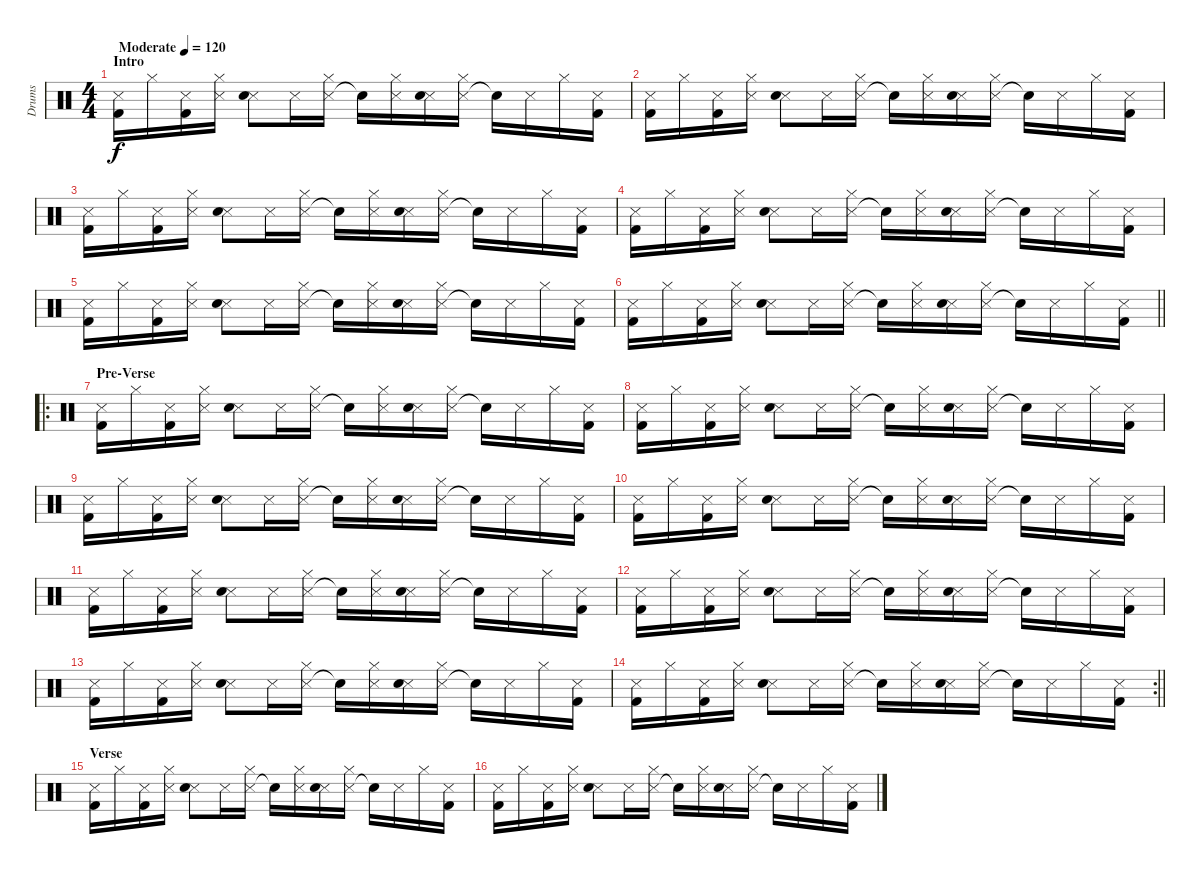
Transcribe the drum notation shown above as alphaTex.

\track ("Drums" "Drums") {instrument percussion}
\staff {score}
\articulation defaults
\ts (4 4)
\section ("" "Intro")
\tempo (120 "Moderate")
\clef neutral
\ks c
("Snare (side stick) 3" "Kick (hit) 2").16{dy f volume 11} "Hi-Hat (closed)".16 ("Snare (side stick) 3" "Kick (hit) 2").16 ("Snare (side stick) 3" "Hi-Hat (closed)").16 ("Snare (side stick) 3" "Snare (hit) 2").8 "Snare (side stick) 3".16 ("Snare (side stick) 3" "Hi-Hat (closed)").16 "Snare (hit)"{t}.16 ("Snare (side stick) 3" "Hi-Hat (closed)").16 ("Snare (side stick) 3" "Snare (hit) 2").16 ("Snare (side stick) 3" "Hi-Hat (closed)").16 "Snare (hit)"{t}.16 "Snare (side stick) 3".16 "Hi-Hat (closed)".16 ("Snare (side stick) 3" "Kick (hit) 2").16 |
("Snare (side stick) 3" "Kick (hit) 2").16 "Hi-Hat (closed)".16 ("Snare (side stick) 3" "Kick (hit) 2").16 ("Snare (side stick) 3" "Hi-Hat (closed)").16 ("Snare (side stick) 3" "Snare (hit) 2").8 "Snare (side stick) 3".16 ("Snare (side stick) 3" "Hi-Hat (closed)").16 "Snare (hit)"{t}.16 ("Snare (side stick) 3" "Hi-Hat (closed)").16 ("Snare (side stick) 3" "Snare (hit) 2").16 ("Snare (side stick) 3" "Hi-Hat (closed)").16 "Snare (hit)"{t}.16 "Snare (side stick) 3".16 "Hi-Hat (closed)".16 ("Snare (side stick) 3" "Kick (hit) 2").16 |
("Snare (side stick) 3" "Kick (hit) 2").16 "Hi-Hat (closed)".16 ("Snare (side stick) 3" "Kick (hit) 2").16 ("Snare (side stick) 3" "Hi-Hat (closed)").16 ("Snare (side stick) 3" "Snare (hit) 2").8 "Snare (side stick) 3".16 ("Snare (side stick) 3" "Hi-Hat (closed)").16 "Snare (hit)"{t}.16 ("Snare (side stick) 3" "Hi-Hat (closed)").16 ("Snare (side stick) 3" "Snare (hit) 2").16 ("Snare (side stick) 3" "Hi-Hat (closed)").16 "Snare (hit)"{t}.16 "Snare (side stick) 3".16 "Hi-Hat (closed)".16 ("Snare (side stick) 3" "Kick (hit) 2").16 |
("Snare (side stick) 3" "Kick (hit) 2").16 "Hi-Hat (closed)".16 ("Snare (side stick) 3" "Kick (hit) 2").16 ("Snare (side stick) 3" "Hi-Hat (closed)").16 ("Snare (side stick) 3" "Snare (hit) 2").8 "Snare (side stick) 3".16 ("Snare (side stick) 3" "Hi-Hat (closed)").16 "Snare (hit)"{t}.16 ("Snare (side stick) 3" "Hi-Hat (closed)").16 ("Snare (side stick) 3" "Snare (hit) 2").16 ("Snare (side stick) 3" "Hi-Hat (closed)").16 "Snare (hit)"{t}.16 "Snare (side stick) 3".16 "Hi-Hat (closed)".16 ("Snare (side stick) 3" "Kick (hit) 2").16 |
("Snare (side stick) 3" "Kick (hit) 2").16 "Hi-Hat (closed)".16 ("Snare (side stick) 3" "Kick (hit) 2").16 ("Snare (side stick) 3" "Hi-Hat (closed)").16 ("Snare (side stick) 3" "Snare (hit) 2").8 "Snare (side stick) 3".16 ("Snare (side stick) 3" "Hi-Hat (closed)").16 "Snare (hit)"{t}.16 ("Snare (side stick) 3" "Hi-Hat (closed)").16 ("Snare (side stick) 3" "Snare (hit) 2").16 ("Snare (side stick) 3" "Hi-Hat (closed)").16 "Snare (hit)"{t}.16 "Snare (side stick) 3".16 "Hi-Hat (closed)".16 ("Snare (side stick) 3" "Kick (hit) 2").16 |
\barLineRight lightlight
("Snare (side stick) 3" "Kick (hit) 2").16 "Hi-Hat (closed)".16 ("Snare (side stick) 3" "Kick (hit) 2").16 ("Snare (side stick) 3" "Hi-Hat (closed)").16 ("Snare (side stick) 3" "Snare (hit) 2").8 "Snare (side stick) 3".16 ("Snare (side stick) 3" "Hi-Hat (closed)").16 "Snare (hit)"{t}.16 ("Snare (side stick) 3" "Hi-Hat (closed)").16 ("Snare (side stick) 3" "Snare (hit) 2").16 ("Snare (side stick) 3" "Hi-Hat (closed)").16 "Snare (hit)"{t}.16 "Snare (side stick) 3".16 "Hi-Hat (closed)".16 ("Snare (side stick) 3" "Kick (hit) 2").16 |
\ro
\section ("" "Pre-Verse")
("Snare (side stick) 3" "Kick (hit) 2").16 "Hi-Hat (closed)".16 ("Snare (side stick) 3" "Kick (hit) 2").16 ("Snare (side stick) 3" "Hi-Hat (closed)").16 ("Snare (side stick) 3" "Snare (hit) 2").8 "Snare (side stick) 3".16 ("Snare (side stick) 3" "Hi-Hat (closed)").16 "Snare (hit)"{t}.16 ("Snare (side stick) 3" "Hi-Hat (closed)").16 ("Snare (side stick) 3" "Snare (hit) 2").16 ("Snare (side stick) 3" "Hi-Hat (closed)").16 "Snare (hit)"{t}.16 "Snare (side stick) 3".16 "Hi-Hat (closed)".16 ("Snare (side stick) 3" "Kick (hit) 2").16 |
("Snare (side stick) 3" "Kick (hit) 2").16 "Hi-Hat (closed)".16 ("Snare (side stick) 3" "Kick (hit) 2").16 ("Snare (side stick) 3" "Hi-Hat (closed)").16 ("Snare (side stick) 3" "Snare (hit) 2").8 "Snare (side stick) 3".16 ("Snare (side stick) 3" "Hi-Hat (closed)").16 "Snare (hit)"{t}.16 ("Snare (side stick) 3" "Hi-Hat (closed)").16 ("Snare (side stick) 3" "Snare (hit) 2").16 ("Snare (side stick) 3" "Hi-Hat (closed)").16 "Snare (hit)"{t}.16 "Snare (side stick) 3".16 "Hi-Hat (closed)".16 ("Snare (side stick) 3" "Kick (hit) 2").16 |
("Snare (side stick) 3" "Kick (hit) 2").16 "Hi-Hat (closed)".16 ("Snare (side stick) 3" "Kick (hit) 2").16 ("Snare (side stick) 3" "Hi-Hat (closed)").16 ("Snare (side stick) 3" "Snare (hit) 2").8 "Snare (side stick) 3".16 ("Snare (side stick) 3" "Hi-Hat (closed)").16 "Snare (hit)"{t}.16 ("Snare (side stick) 3" "Hi-Hat (closed)").16 ("Snare (side stick) 3" "Snare (hit) 2").16 ("Snare (side stick) 3" "Hi-Hat (closed)").16 "Snare (hit)"{t}.16 "Snare (side stick) 3".16 "Hi-Hat (closed)".16 ("Snare (side stick) 3" "Kick (hit) 2").16 |
("Snare (side stick) 3" "Kick (hit) 2").16 "Hi-Hat (closed)".16 ("Snare (side stick) 3" "Kick (hit) 2").16 ("Snare (side stick) 3" "Hi-Hat (closed)").16 ("Snare (side stick) 3" "Snare (hit) 2").8 "Snare (side stick) 3".16 ("Snare (side stick) 3" "Hi-Hat (closed)").16 "Snare (hit)"{t}.16 ("Snare (side stick) 3" "Hi-Hat (closed)").16 ("Snare (side stick) 3" "Snare (hit) 2").16 ("Snare (side stick) 3" "Hi-Hat (closed)").16 "Snare (hit)"{t}.16 "Snare (side stick) 3".16 "Hi-Hat (closed)".16 ("Snare (side stick) 3" "Kick (hit) 2").16 |
("Snare (side stick) 3" "Kick (hit) 2").16 "Hi-Hat (closed)".16 ("Snare (side stick) 3" "Kick (hit) 2").16 ("Snare (side stick) 3" "Hi-Hat (closed)").16 ("Snare (side stick) 3" "Snare (hit) 2").8 "Snare (side stick) 3".16 ("Snare (side stick) 3" "Hi-Hat (closed)").16 "Snare (hit)"{t}.16 ("Snare (side stick) 3" "Hi-Hat (closed)").16 ("Snare (side stick) 3" "Snare (hit) 2").16 ("Snare (side stick) 3" "Hi-Hat (closed)").16 "Snare (hit)"{t}.16 "Snare (side stick) 3".16 "Hi-Hat (closed)".16 ("Snare (side stick) 3" "Kick (hit) 2").16 |
("Snare (side stick) 3" "Kick (hit) 2").16 "Hi-Hat (closed)".16 ("Snare (side stick) 3" "Kick (hit) 2").16 ("Snare (side stick) 3" "Hi-Hat (closed)").16 ("Snare (side stick) 3" "Snare (hit) 2").8 "Snare (side stick) 3".16 ("Snare (side stick) 3" "Hi-Hat (closed)").16 "Snare (hit)"{t}.16 ("Snare (side stick) 3" "Hi-Hat (closed)").16 ("Snare (side stick) 3" "Snare (hit) 2").16 ("Snare (side stick) 3" "Hi-Hat (closed)").16 "Snare (hit)"{t}.16 "Snare (side stick) 3".16 "Hi-Hat (closed)".16 ("Snare (side stick) 3" "Kick (hit) 2").16 |
("Snare (side stick) 3" "Kick (hit) 2").16 "Hi-Hat (closed)".16 ("Snare (side stick) 3" "Kick (hit) 2").16 ("Snare (side stick) 3" "Hi-Hat (closed)").16 ("Snare (side stick) 3" "Snare (hit) 2").8 "Snare (side stick) 3".16 ("Snare (side stick) 3" "Hi-Hat (closed)").16 "Snare (hit)"{t}.16 ("Snare (side stick) 3" "Hi-Hat (closed)").16 ("Snare (side stick) 3" "Snare (hit) 2").16 ("Snare (side stick) 3" "Hi-Hat (closed)").16 "Snare (hit)"{t}.16 "Snare (side stick) 3".16 "Hi-Hat (closed)".16 ("Snare (side stick) 3" "Kick (hit) 2").16 |
\rc 2
\barLineRight lightlight
("Snare (side stick) 3" "Kick (hit) 2").16 "Hi-Hat (closed)".16 ("Snare (side stick) 3" "Kick (hit) 2").16 ("Snare (side stick) 3" "Hi-Hat (closed)").16 ("Snare (side stick) 3" "Snare (hit) 2").8 "Snare (side stick) 3".16 ("Snare (side stick) 3" "Hi-Hat (closed)").16 "Snare (hit)"{t}.16 ("Snare (side stick) 3" "Hi-Hat (closed)").16 ("Snare (side stick) 3" "Snare (hit) 2").16 ("Snare (side stick) 3" "Hi-Hat (closed)").16 "Snare (hit)"{t}.16 "Snare (side stick) 3".16 "Hi-Hat (closed)".16 ("Snare (side stick) 3" "Kick (hit) 2").16 |
\section ("" "Verse")
("Snare (side stick) 3" "Kick (hit) 2").16 "Hi-Hat (closed)".16 ("Snare (side stick) 3" "Kick (hit) 2").16 ("Snare (side stick) 3" "Hi-Hat (closed)").16 ("Snare (side stick) 3" "Snare (hit) 2").8 "Snare (side stick) 3".16 ("Snare (side stick) 3" "Hi-Hat (closed)").16 "Snare (hit)"{t}.16 ("Snare (side stick) 3" "Hi-Hat (closed)").16 ("Snare (side stick) 3" "Snare (hit) 2").16 ("Snare (side stick) 3" "Hi-Hat (closed)").16 "Snare (hit)"{t}.16 "Snare (side stick) 3".16 "Hi-Hat (closed)".16 ("Snare (side stick) 3" "Kick (hit) 2").16 |
("Snare (side stick) 3" "Kick (hit) 2").16 "Hi-Hat (closed)".16 ("Snare (side stick) 3" "Kick (hit) 2").16 ("Snare (side stick) 3" "Hi-Hat (closed)").16 ("Snare (side stick) 3" "Snare (hit) 2").8 "Snare (side stick) 3".16 ("Snare (side stick) 3" "Hi-Hat (closed)").16 "Snare (hit)"{t}.16 ("Snare (side stick) 3" "Hi-Hat (closed)").16 ("Snare (side stick) 3" "Snare (hit) 2").16 ("Snare (side stick) 3" "Hi-Hat (closed)").16 "Snare (hit)"{t}.16 "Snare (side stick) 3".16 "Hi-Hat (closed)".16 ("Snare (side stick) 3" "Kick (hit) 2").16
